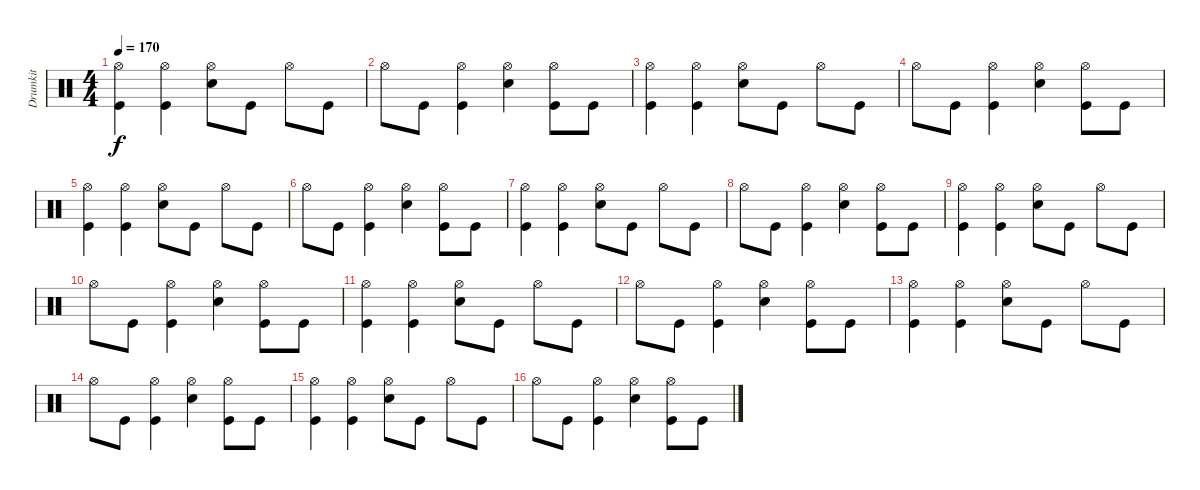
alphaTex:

\track ("Drumkit" "Drumkit") {instrument percussion}
\staff {score}
\articulation defaults
\ts (4 4)
\tempo 170
\clef neutral
\ks c
("Kick (hit)" "Hi-Hat (open)").4{dy f} ("Kick (hit)" "Hi-Hat (open)").4 ("Snare (hit) 2" "Hi-Hat (open)").8 "Kick (hit)".8 "Hi-Hat (open)".8 "Kick (hit)".8 |
"Hi-Hat (open)".8 "Kick (hit)".8 ("Kick (hit)" "Hi-Hat (open)").4 ("Snare (hit) 2" "Hi-Hat (open)").4 ("Kick (hit)" "Hi-Hat (open)").8 "Kick (hit)".8 |
("Kick (hit)" "Hi-Hat (open)").4 ("Kick (hit)" "Hi-Hat (open)").4 ("Snare (hit) 2" "Hi-Hat (open)").8 "Kick (hit)".8 "Hi-Hat (open)".8 "Kick (hit)".8 |
"Hi-Hat (open)".8 "Kick (hit)".8 ("Kick (hit)" "Hi-Hat (open)").4 ("Snare (hit) 2" "Hi-Hat (open)").4 ("Kick (hit)" "Hi-Hat (open)").8 "Kick (hit)".8 |
("Kick (hit)" "Hi-Hat (open)").4 ("Kick (hit)" "Hi-Hat (open)").4 ("Snare (hit) 2" "Hi-Hat (open)").8 "Kick (hit)".8 "Hi-Hat (open)".8 "Kick (hit)".8 |
"Hi-Hat (open)".8 "Kick (hit)".8 ("Kick (hit)" "Hi-Hat (open)").4 ("Snare (hit) 2" "Hi-Hat (open)").4 ("Kick (hit)" "Hi-Hat (open)").8 "Kick (hit)".8 |
("Kick (hit)" "Hi-Hat (open)").4 ("Kick (hit)" "Hi-Hat (open)").4 ("Snare (hit) 2" "Hi-Hat (open)").8 "Kick (hit)".8 "Hi-Hat (open)".8 "Kick (hit)".8 |
"Hi-Hat (open)".8 "Kick (hit)".8 ("Kick (hit)" "Hi-Hat (open)").4 ("Snare (hit) 2" "Hi-Hat (open)").4 ("Kick (hit)" "Hi-Hat (open)").8 "Kick (hit)".8 |
("Kick (hit)" "Hi-Hat (open)").4 ("Kick (hit)" "Hi-Hat (open)").4 ("Snare (hit) 2" "Hi-Hat (open)").8 "Kick (hit)".8 "Hi-Hat (open)".8 "Kick (hit)".8 |
"Hi-Hat (open)".8 "Kick (hit)".8 ("Kick (hit)" "Hi-Hat (open)").4 ("Snare (hit) 2" "Hi-Hat (open)").4 ("Kick (hit)" "Hi-Hat (open)").8 "Kick (hit)".8 |
("Kick (hit)" "Hi-Hat (open)").4 ("Kick (hit)" "Hi-Hat (open)").4 ("Snare (hit) 2" "Hi-Hat (open)").8 "Kick (hit)".8 "Hi-Hat (open)".8 "Kick (hit)".8 |
"Hi-Hat (open)".8 "Kick (hit)".8 ("Kick (hit)" "Hi-Hat (open)").4 ("Snare (hit) 2" "Hi-Hat (open)").4 ("Kick (hit)" "Hi-Hat (open)").8 "Kick (hit)".8 |
("Kick (hit)" "Hi-Hat (open)").4 ("Kick (hit)" "Hi-Hat (open)").4 ("Snare (hit) 2" "Hi-Hat (open)").8 "Kick (hit)".8 "Hi-Hat (open)".8 "Kick (hit)".8 |
"Hi-Hat (open)".8 "Kick (hit)".8 ("Kick (hit)" "Hi-Hat (open)").4 ("Snare (hit) 2" "Hi-Hat (open)").4 ("Kick (hit)" "Hi-Hat (open)").8 "Kick (hit)".8 |
("Kick (hit)" "Hi-Hat (open)").4 ("Kick (hit)" "Hi-Hat (open)").4 ("Snare (hit) 2" "Hi-Hat (open)").8 "Kick (hit)".8 "Hi-Hat (open)".8 "Kick (hit)".8 |
"Hi-Hat (open)".8 "Kick (hit)".8 ("Kick (hit)" "Hi-Hat (open)").4 ("Snare (hit) 2" "Hi-Hat (open)").4 ("Kick (hit)" "Hi-Hat (open)").8 "Kick (hit)".8
